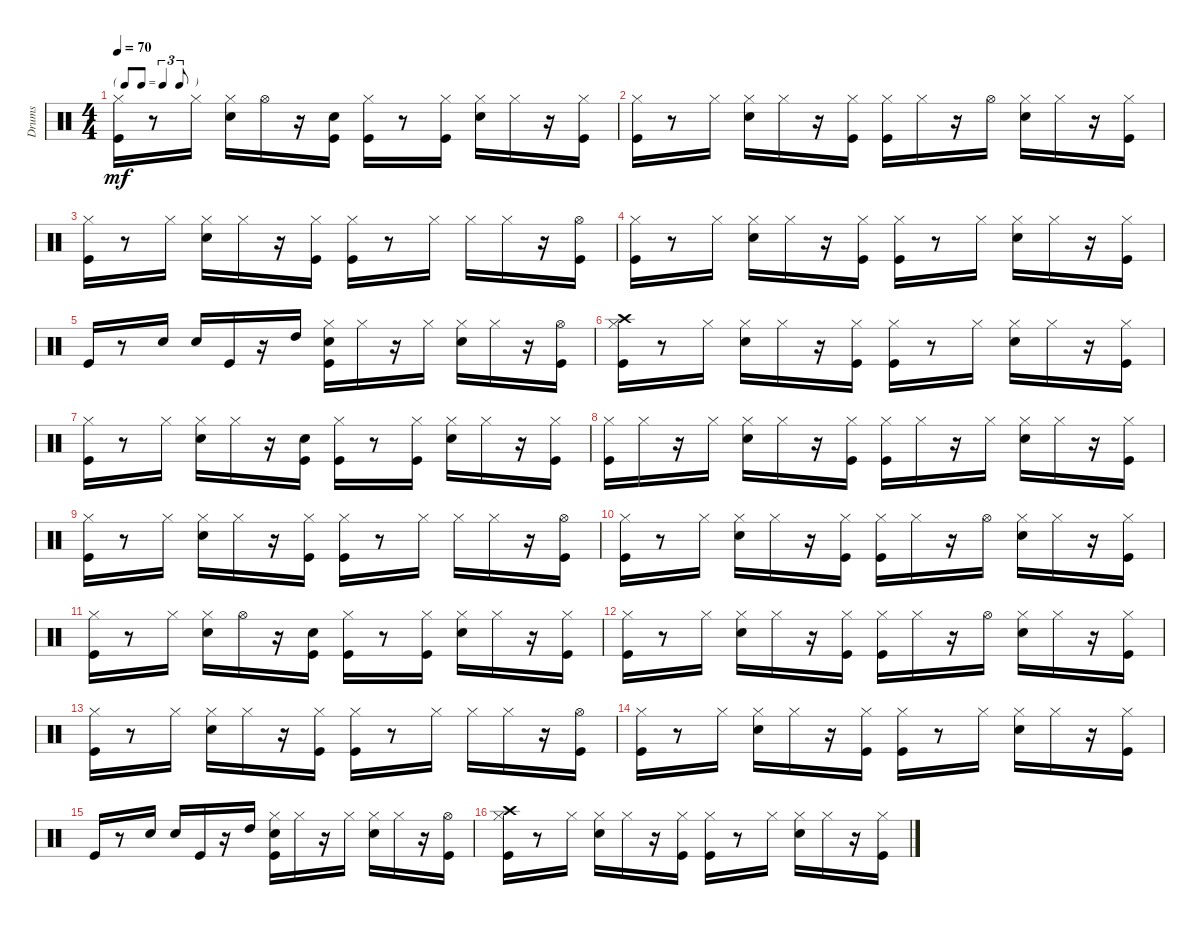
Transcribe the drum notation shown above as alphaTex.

\track ("Drums" "Drums") {instrument percussion}
\staff {score}
\articulation defaults
\ts (4 4)
\tf triplet8th
\tempo 70
\clef neutral
\ks c
("Kick (hit)" "Hi-Hat (closed)").16{dy mf} r.8 "Hi-Hat (closed)".16 ("Snare (hit) 2" "Hi-Hat (closed)").16 "Hi-Hat (open)".16 r.16 ("Kick (hit)" "Snare (hit) 2").16 ("Kick (hit)" "Hi-Hat (closed)").16 r.8 ("Kick (hit)" "Hi-Hat (closed)").16 ("Snare (hit) 2" "Hi-Hat (closed)").16 "Hi-Hat (closed)".16 r.16 ("Kick (hit)" "Hi-Hat (closed)").16 |
("Kick (hit)" "Hi-Hat (closed)").16 r.8 "Hi-Hat (closed)".16 ("Snare (hit) 2" "Hi-Hat (closed)").16 "Hi-Hat (closed)".16 r.16 ("Kick (hit)" "Hi-Hat (closed)").16 ("Kick (hit)" "Hi-Hat (closed)").16 "Hi-Hat (closed)".16 r.16 "Hi-Hat (open)".16 ("Snare (hit) 2" "Hi-Hat (closed)").16 "Hi-Hat (closed)".16 r.16 ("Kick (hit)" "Hi-Hat (closed)").16 |
("Kick (hit)" "Hi-Hat (closed)").16 r.8 "Hi-Hat (closed)".16 ("Snare (hit) 2" "Hi-Hat (closed)").16 "Hi-Hat (closed)".16 r.16 ("Kick (hit)" "Hi-Hat (closed)").16 ("Kick (hit)" "Hi-Hat (closed)").16 r.8 "Hi-Hat (closed)".16 "Hi-Hat (closed)".16 "Hi-Hat (closed)".16 r.16 ("Kick (hit)" "Hi-Hat (open)").16 |
("Kick (hit)" "Hi-Hat (closed)").16 r.8 "Hi-Hat (closed)".16 ("Snare (hit) 2" "Hi-Hat (closed)").16 "Hi-Hat (closed)".16 r.16 ("Kick (hit)" "Hi-Hat (closed)").16 ("Kick (hit)" "Hi-Hat (closed)").16 r.8 "Hi-Hat (closed)".16 ("Snare (hit) 2" "Hi-Hat (closed)").16 "Hi-Hat (closed)".16 r.16 ("Kick (hit)" "Hi-Hat (closed)").16 |
"Kick (hit)".16 r.8 "Snare (hit) 2".16 "Snare (hit) 2".16 "Kick (hit)".16 r.16 "High Tom (hit)".16 ("Kick (hit)" "Snare (hit) 2" "Hi-Hat (closed)").16 "Hi-Hat (closed)".16 r.16 "Hi-Hat (closed)".16 ("Snare (hit) 2" "Hi-Hat (closed)").16 "Hi-Hat (closed)".16 r.16 ("Kick (hit)" "Hi-Hat (open)").16 |
("Kick (hit)" "Hi-Hat (closed)" "Crash high (hit)").16 r.8 "Hi-Hat (closed)".16 ("Snare (hit) 2" "Hi-Hat (closed)").16 "Hi-Hat (closed)".16 r.16 ("Kick (hit)" "Hi-Hat (closed)").16 ("Kick (hit)" "Hi-Hat (closed)").16 r.8 "Hi-Hat (closed)".16 ("Snare (hit) 2" "Hi-Hat (closed)").16 "Hi-Hat (closed)".16 r.16 ("Kick (hit)" "Hi-Hat (closed)").16 |
("Kick (hit)" "Hi-Hat (closed)").16 r.8 "Hi-Hat (closed)".16 ("Snare (hit) 2" "Hi-Hat (closed)").16 "Hi-Hat (closed)".16 r.16 ("Kick (hit)" "Snare (hit) 2").16 ("Kick (hit)" "Hi-Hat (closed)").16 r.8 ("Kick (hit)" "Hi-Hat (closed)").16 ("Snare (hit) 2" "Hi-Hat (closed)").16 "Hi-Hat (closed)".16 r.16 ("Kick (hit)" "Hi-Hat (closed)").16 |
("Kick (hit)" "Hi-Hat (closed)").16 "Hi-Hat (closed)".16 r.16 "Hi-Hat (closed)".16 ("Snare (hit) 2" "Hi-Hat (closed)").16 "Hi-Hat (closed)".16 r.16 ("Kick (hit)" "Hi-Hat (closed)").16 ("Kick (hit)" "Hi-Hat (closed)").16 "Hi-Hat (closed)".16 r.16 "Hi-Hat (closed)".16 ("Snare (hit) 2" "Hi-Hat (closed)").16 "Hi-Hat (closed)".16 r.16 ("Kick (hit)" "Hi-Hat (closed)").16 |
("Kick (hit)" "Hi-Hat (closed)").16 r.8 "Hi-Hat (closed)".16 ("Snare (hit) 2" "Hi-Hat (closed)").16 "Hi-Hat (closed)".16 r.16 ("Kick (hit)" "Hi-Hat (closed)").16 ("Kick (hit)" "Hi-Hat (closed)").16 r.8 "Hi-Hat (closed)".16 "Hi-Hat (closed)".16 "Hi-Hat (closed)".16 r.16 ("Kick (hit)" "Hi-Hat (open)").16 |
("Kick (hit)" "Hi-Hat (closed)").16 r.8 "Hi-Hat (closed)".16 ("Snare (hit) 2" "Hi-Hat (closed)").16 "Hi-Hat (closed)".16 r.16 ("Kick (hit)" "Hi-Hat (closed)").16 ("Kick (hit)" "Hi-Hat (closed)").16 "Hi-Hat (closed)".16 r.16 "Hi-Hat (open)".16 ("Snare (hit) 2" "Hi-Hat (closed)").16 "Hi-Hat (closed)".16 r.16 ("Kick (hit)" "Hi-Hat (closed)").16 |
("Kick (hit)" "Hi-Hat (closed)").16 r.8 "Hi-Hat (closed)".16 ("Snare (hit) 2" "Hi-Hat (closed)").16 "Hi-Hat (open)".16 r.16 ("Kick (hit)" "Snare (hit) 2").16 ("Kick (hit)" "Hi-Hat (closed)").16 r.8 ("Kick (hit)" "Hi-Hat (closed)").16 ("Snare (hit) 2" "Hi-Hat (closed)").16 "Hi-Hat (closed)".16 r.16 ("Kick (hit)" "Hi-Hat (closed)").16 |
("Kick (hit)" "Hi-Hat (closed)").16 r.8 "Hi-Hat (closed)".16 ("Snare (hit) 2" "Hi-Hat (closed)").16 "Hi-Hat (closed)".16 r.16 ("Kick (hit)" "Hi-Hat (closed)").16 ("Kick (hit)" "Hi-Hat (closed)").16 "Hi-Hat (closed)".16 r.16 "Hi-Hat (open)".16 ("Snare (hit) 2" "Hi-Hat (closed)").16 "Hi-Hat (closed)".16 r.16 ("Kick (hit)" "Hi-Hat (closed)").16 |
("Kick (hit)" "Hi-Hat (closed)").16 r.8 "Hi-Hat (closed)".16 ("Snare (hit) 2" "Hi-Hat (closed)").16 "Hi-Hat (closed)".16 r.16 ("Kick (hit)" "Hi-Hat (closed)").16 ("Kick (hit)" "Hi-Hat (closed)").16 r.8 "Hi-Hat (closed)".16 "Hi-Hat (closed)".16 "Hi-Hat (closed)".16 r.16 ("Kick (hit)" "Hi-Hat (open)").16 |
("Kick (hit)" "Hi-Hat (closed)").16 r.8 "Hi-Hat (closed)".16 ("Snare (hit) 2" "Hi-Hat (closed)").16 "Hi-Hat (closed)".16 r.16 ("Kick (hit)" "Hi-Hat (closed)").16 ("Kick (hit)" "Hi-Hat (closed)").16 r.8 "Hi-Hat (closed)".16 ("Snare (hit) 2" "Hi-Hat (closed)").16 "Hi-Hat (closed)".16 r.16 ("Kick (hit)" "Hi-Hat (closed)").16 |
"Kick (hit)".16 r.8 "Snare (hit) 2".16 "Snare (hit) 2".16 "Kick (hit)".16 r.16 "High Tom (hit)".16 ("Kick (hit)" "Snare (hit) 2" "Hi-Hat (closed)").16 "Hi-Hat (closed)".16 r.16 "Hi-Hat (closed)".16 ("Snare (hit) 2" "Hi-Hat (closed)").16 "Hi-Hat (closed)".16 r.16 ("Kick (hit)" "Hi-Hat (open)").16 |
("Kick (hit)" "Hi-Hat (closed)" "Crash high (hit)").16 r.8 "Hi-Hat (closed)".16 ("Snare (hit) 2" "Hi-Hat (closed)").16 "Hi-Hat (closed)".16 r.16 ("Kick (hit)" "Hi-Hat (closed)").16 ("Kick (hit)" "Hi-Hat (closed)").16 r.8 "Hi-Hat (closed)".16 ("Snare (hit) 2" "Hi-Hat (closed)").16 "Hi-Hat (closed)".16 r.16 ("Kick (hit)" "Hi-Hat (closed)").16
